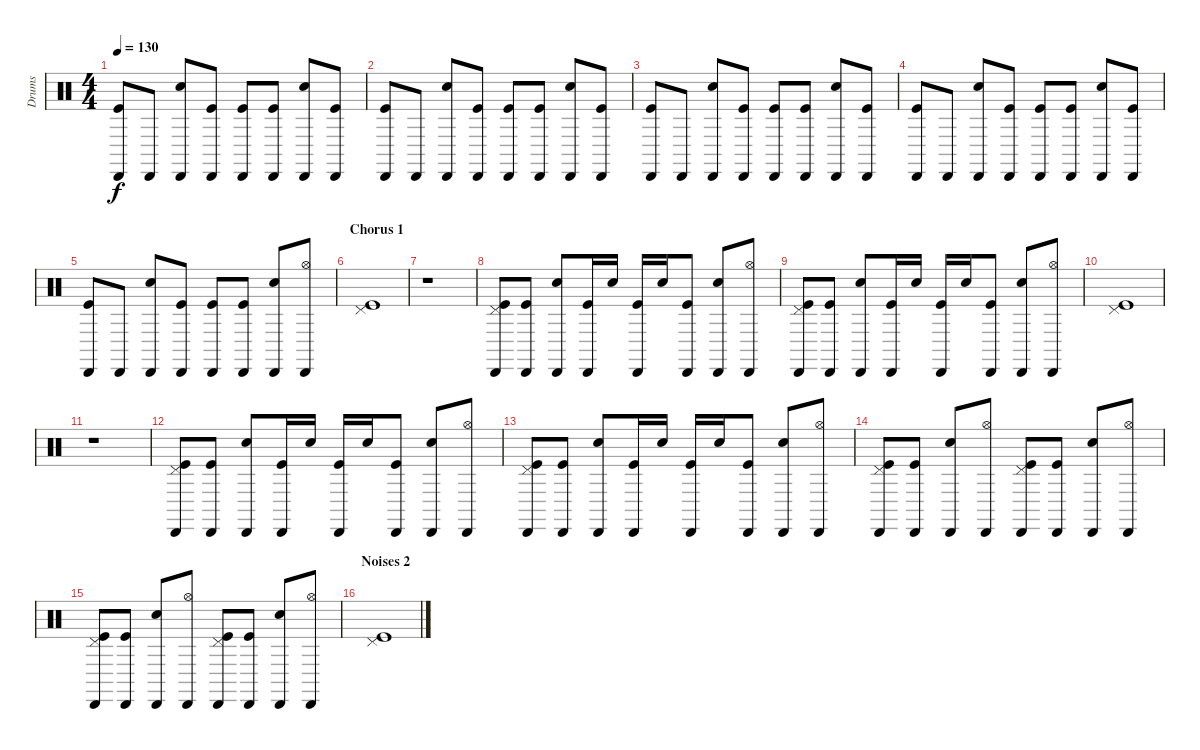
\track ("Drums" "Drums") {instrument percussion}
\staff {score}
\articulation defaults
\ts (4 4)
\tempo 130
\clef neutral
\ks c
("Cabasa (hit)" "Kick (hit)").8{dy f} "Cabasa (hit)".8 ("Cabasa (hit)" "Electric Snare (hit)").8 ("Cabasa (hit)" "Kick (hit)").8 ("Cabasa (hit)" "Kick (hit)").8 ("Cabasa (hit)" "Kick (hit)").8 ("Cabasa (hit)" "Electric Snare (hit)").8 ("Cabasa (hit)" "Kick (hit)").8 |
("Cabasa (hit)" "Kick (hit)").8 "Cabasa (hit)".8 ("Cabasa (hit)" "Electric Snare (hit)").8 ("Cabasa (hit)" "Kick (hit)").8 ("Cabasa (hit)" "Kick (hit)").8 ("Cabasa (hit)" "Kick (hit)").8 ("Cabasa (hit)" "Electric Snare (hit)").8 ("Cabasa (hit)" "Kick (hit)").8 |
("Cabasa (hit)" "Kick (hit)").8 "Cabasa (hit)".8 ("Cabasa (hit)" "Electric Snare (hit)").8 ("Cabasa (hit)" "Kick (hit)").8 ("Cabasa (hit)" "Kick (hit)").8 ("Cabasa (hit)" "Kick (hit)").8 ("Cabasa (hit)" "Electric Snare (hit)").8 ("Cabasa (hit)" "Kick (hit)").8 |
("Cabasa (hit)" "Kick (hit)").8 "Cabasa (hit)".8 ("Cabasa (hit)" "Electric Snare (hit)").8 ("Cabasa (hit)" "Kick (hit)").8 ("Cabasa (hit)" "Kick (hit)").8 ("Cabasa (hit)" "Kick (hit)").8 ("Cabasa (hit)" "Electric Snare (hit)").8 ("Cabasa (hit)" "Kick (hit)").8 |
("Cabasa (hit)" "Kick (hit)").8 "Cabasa (hit)".8 ("Cabasa (hit)" "Electric Snare (hit)").8 ("Cabasa (hit)" "Kick (hit)").8 ("Cabasa (hit)" "Kick (hit)").8 ("Cabasa (hit)" "Kick (hit)").8 ("Cabasa (hit)" "Electric Snare (hit)").8 ("Cabasa (hit)" "Hi-Hat (open)").8 |
\section ("" "Chorus 1")
("Pedal Hi-Hat (hit)" "Kick (hit)").1 |
r.1 |
("Cabasa (hit)" "Pedal Hi-Hat (hit)" "Kick (hit)").8 ("Cabasa (hit)" "Kick (hit)").8 ("Cabasa (hit)" "Electric Snare (hit)").8 ("Cabasa (hit)" "Kick (hit)").16 "Electric Snare (hit)".16 ("Cabasa (hit)" "Kick (hit)").16 "Electric Snare (hit)".16 ("Cabasa (hit)" "Kick (hit)").8 ("Cabasa (hit)" "Electric Snare (hit)").8 ("Cabasa (hit)" "Hi-Hat (open)").8 |
("Cabasa (hit)" "Pedal Hi-Hat (hit)" "Kick (hit)").8 ("Cabasa (hit)" "Kick (hit)").8 ("Cabasa (hit)" "Electric Snare (hit)").8 ("Cabasa (hit)" "Kick (hit)").16 "Electric Snare (hit)".16 ("Cabasa (hit)" "Kick (hit)").16 "Electric Snare (hit)".16 ("Cabasa (hit)" "Kick (hit)").8 ("Cabasa (hit)" "Electric Snare (hit)").8 ("Cabasa (hit)" "Hi-Hat (open)").8 |
("Pedal Hi-Hat (hit)" "Kick (hit)").1 |
r.1 |
("Cabasa (hit)" "Pedal Hi-Hat (hit)" "Kick (hit)").8 ("Cabasa (hit)" "Kick (hit)").8 ("Cabasa (hit)" "Electric Snare (hit)").8 ("Cabasa (hit)" "Kick (hit)").16 "Electric Snare (hit)".16 ("Cabasa (hit)" "Kick (hit)").16 "Electric Snare (hit)".16 ("Cabasa (hit)" "Kick (hit)").8 ("Cabasa (hit)" "Electric Snare (hit)").8 ("Cabasa (hit)" "Hi-Hat (open)").8 |
("Cabasa (hit)" "Pedal Hi-Hat (hit)" "Kick (hit)").8 ("Cabasa (hit)" "Kick (hit)").8 ("Cabasa (hit)" "Electric Snare (hit)").8 ("Cabasa (hit)" "Kick (hit)").16 "Electric Snare (hit)".16 ("Cabasa (hit)" "Kick (hit)").16 "Electric Snare (hit)".16 ("Cabasa (hit)" "Kick (hit)").8 ("Cabasa (hit)" "Electric Snare (hit)").8 ("Cabasa (hit)" "Hi-Hat (open)").8 |
("Cabasa (hit)" "Pedal Hi-Hat (hit)" "Kick (hit)").8 ("Cabasa (hit)" "Kick (hit)").8 ("Cabasa (hit)" "Electric Snare (hit)").8 ("Cabasa (hit)" "Hi-Hat (open)").8 ("Cabasa (hit)" "Pedal Hi-Hat (hit)" "Kick (hit)").8 ("Cabasa (hit)" "Kick (hit)").8 ("Cabasa (hit)" "Electric Snare (hit)").8 ("Cabasa (hit)" "Hi-Hat (open)").8 |
("Cabasa (hit)" "Pedal Hi-Hat (hit)" "Kick (hit)").8 ("Cabasa (hit)" "Kick (hit)").8 ("Cabasa (hit)" "Electric Snare (hit)").8 ("Cabasa (hit)" "Hi-Hat (open)").8 ("Cabasa (hit)" "Pedal Hi-Hat (hit)" "Kick (hit)").8 ("Cabasa (hit)" "Kick (hit)").8 ("Cabasa (hit)" "Electric Snare (hit)").8 ("Cabasa (hit)" "Hi-Hat (open)").8 |
\section ("" "Noises 2")
("Pedal Hi-Hat (hit)" "Kick (hit)").1
